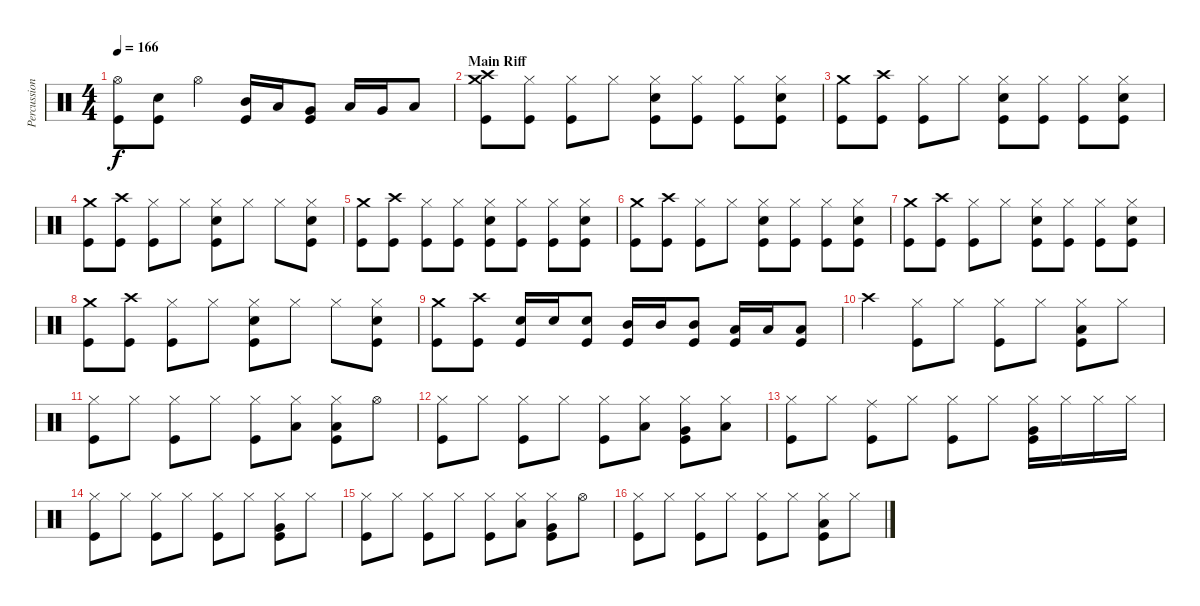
\track ("Percussion" "Percussion") {instrument percussion}
\staff {score}
\articulation defaults
\ts (4 4)
\tempo 166
\clef neutral
\ks c
("Hi-Hat (open)" "Kick (hit)").8{dy f} ("Electric Snare (hit)" "Kick (hit)").8 "Hi-Hat (open)".4 ("Mid Tom (hit)" "Kick (hit)").16 "Low Tom (hit)".16 ("Very Low Tom (hit)" "Kick (hit)").8 "Low Tom (hit)".16 "Very Low Tom (hit)".16 "Low Floor Tom (hit)".8 |
\section ("" "Main Riff")
("Crash high (hit)" "Crash medium (hit)" "Kick (hit)").8 ("Hi-Hat (closed)" "Kick (hit)").8 ("Hi-Hat (closed)" "Kick (hit)").8 "Hi-Hat (closed)".8 ("Hi-Hat (closed)" "Electric Snare (hit)" "Kick (hit)").8 ("Hi-Hat (closed)" "Kick (hit)").8 ("Hi-Hat (closed)" "Kick (hit)").8 ("Hi-Hat (closed)" "Electric Snare (hit)" "Kick (hit)").8 |
("Crash medium (hit)" "Kick (hit)").8 ("Crash high (hit)" "Kick (hit)").8 ("Hi-Hat (closed)" "Kick (hit)").8 "Hi-Hat (closed)".8 ("Hi-Hat (closed)" "Electric Snare (hit)" "Kick (hit)").8 ("Hi-Hat (closed)" "Kick (hit)").8 ("Hi-Hat (closed)" "Kick (hit)").8 ("Hi-Hat (closed)" "Electric Snare (hit)" "Kick (hit)").8 |
("Crash medium (hit)" "Kick (hit)").8 ("Crash high (hit)" "Kick (hit)").8 ("Hi-Hat (closed)" "Kick (hit)").8 "Hi-Hat (closed)".8 ("Hi-Hat (closed)" "Electric Snare (hit)" "Kick (hit)").8 "Hi-Hat (closed)".8 "Hi-Hat (closed)".8 ("Hi-Hat (closed)" "Electric Snare (hit)" "Kick (hit)").8 |
("Crash medium (hit)" "Kick (hit)").8 ("Crash high (hit)" "Kick (hit)").8 ("Hi-Hat (closed)" "Kick (hit)").8 ("Hi-Hat (closed)" "Kick (hit)").8 ("Hi-Hat (closed)" "Electric Snare (hit)" "Kick (hit)").8 ("Hi-Hat (closed)" "Kick (hit)").8 ("Hi-Hat (closed)" "Kick (hit)").8 ("Hi-Hat (closed)" "Electric Snare (hit)" "Kick (hit)").8 |
("Crash medium (hit)" "Kick (hit)").8 ("Crash high (hit)" "Kick (hit)").8 ("Hi-Hat (closed)" "Kick (hit)").8 "Hi-Hat (closed)".8 ("Hi-Hat (closed)" "Electric Snare (hit)" "Kick (hit)").8 ("Hi-Hat (closed)" "Kick (hit)").8 ("Hi-Hat (closed)" "Kick (hit)").8 ("Hi-Hat (closed)" "Electric Snare (hit)" "Kick (hit)").8 |
("Crash medium (hit)" "Kick (hit)").8 ("Crash high (hit)" "Kick (hit)").8 ("Hi-Hat (closed)" "Kick (hit)").8 "Hi-Hat (closed)".8 ("Hi-Hat (closed)" "Electric Snare (hit)" "Kick (hit)").8 ("Hi-Hat (closed)" "Kick (hit)").8 ("Hi-Hat (closed)" "Kick (hit)").8 ("Hi-Hat (closed)" "Electric Snare (hit)" "Kick (hit)").8 |
("Crash medium (hit)" "Kick (hit)").8 ("Crash high (hit)" "Kick (hit)").8 ("Hi-Hat (closed)" "Kick (hit)").8 "Hi-Hat (closed)".8 ("Hi-Hat (closed)" "Electric Snare (hit)" "Kick (hit)").8 "Hi-Hat (closed)".8 "Hi-Hat (closed)".8 ("Hi-Hat (closed)" "Electric Snare (hit)" "Kick (hit)").8 |
("Crash medium (hit)" "Kick (hit)").8 ("Crash high (hit)" "Kick (hit)").8 ("Electric Snare (hit)" "Kick (hit)").16 "Electric Snare (hit)".16 ("Electric Snare (hit)" "Kick (hit)").8 ("Mid Tom (hit)" "Kick (hit)").16 "Mid Tom (hit)".16 ("Mid Tom (hit)" "Kick (hit)").8 ("Low Tom (hit)" "Kick (hit)").16 "Low Tom (hit)".16 ("Low Tom (hit)" "Kick (hit)").8 |
"Crash high (hit)".4 ("Hi-Hat (closed)" "Kick (hit)").8 "Hi-Hat (closed)".8 ("Hi-Hat (closed)" "Kick (hit)").8 "Hi-Hat (closed)".8 ("Hi-Hat (closed)" "Low Floor Tom (hit)" "Kick (hit)").8 "Hi-Hat (closed)".8 |
("Hi-Hat (closed)" "Kick (hit)").8 "Hi-Hat (closed)".8 ("Hi-Hat (closed)" "Kick (hit)").8 "Hi-Hat (closed)".8 ("Hi-Hat (closed)" "Kick (hit)").8 ("Hi-Hat (closed)" "Low Tom (hit)").8 ("Hi-Hat (closed)" "Low Floor Tom (hit)" "Kick (hit)").8 "Hi-Hat (open)".8 |
("Hi-Hat (closed)" "Kick (hit)").8 "Hi-Hat (closed)".8 ("Hi-Hat (closed)" "Kick (hit)").8 "Hi-Hat (closed)".8 ("Hi-Hat (closed)" "Kick (hit)").8 ("Hi-Hat (closed)" "Low Tom (hit)").8 ("Hi-Hat (closed)" "Very Low Tom (hit)" "Kick (hit)").8 ("Hi-Hat (closed)" "Low Floor Tom (hit)").8 |
("Hi-Hat (closed)" "Kick (hit)").8 "Hi-Hat (closed)".8 ("Ride (middle)" "Kick (hit)").8 "Hi-Hat (closed)".8 ("Hi-Hat (closed)" "Kick (hit)").8 "Hi-Hat (closed)".8 ("Hi-Hat (closed)" "Very Low Tom (hit)" "Kick (hit)").16 "Hi-Hat (closed)".16 "Hi-Hat (closed)".16 "Hi-Hat (closed)".16 |
("Hi-Hat (closed)" "Kick (hit)").8 "Hi-Hat (closed)".8 ("Hi-Hat (closed)" "Kick (hit)").8 "Hi-Hat (closed)".8 ("Hi-Hat (closed)" "Kick (hit)").8 "Hi-Hat (closed)".8 ("Hi-Hat (closed)" "Very Low Tom (hit)" "Kick (hit)").8 "Hi-Hat (closed)".8 |
("Hi-Hat (closed)" "Kick (hit)").8 "Hi-Hat (closed)".8 ("Hi-Hat (closed)" "Kick (hit)").8 "Hi-Hat (closed)".8 ("Hi-Hat (closed)" "Kick (hit)").8 ("Hi-Hat (closed)" "Low Tom (hit)").8 ("Hi-Hat (closed)" "Very Low Tom (hit)" "Kick (hit)").8 "Hi-Hat (open)".8 |
("Hi-Hat (closed)" "Kick (hit)").8 "Hi-Hat (closed)".8 ("Hi-Hat (closed)" "Kick (hit)").8 "Hi-Hat (closed)".8 ("Hi-Hat (closed)" "Kick (hit)").8 "Hi-Hat (closed)".8 ("Hi-Hat (closed)" "Low Floor Tom (hit)" "Kick (hit)").8 "Hi-Hat (closed)".8
